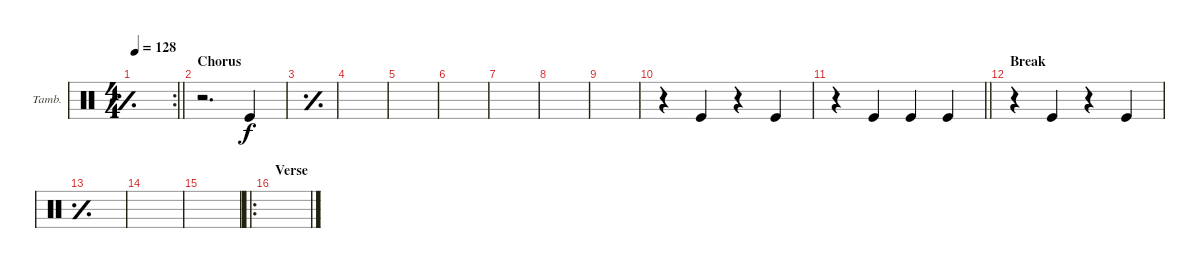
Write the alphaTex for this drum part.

\defaultSystemsLayout 4
\bracketExtendMode groupsimilarinstruments
\firstSystemTrackNameOrientation horizontal
\otherSystemsTrackNameOrientation horizontal
\track ("Tambourine" "Tamb.") {instrument percussion}
\staff {score}
\articulation defaults
\rc 2
\ts (4 4)
\tempo 128
\clef neutral
\simile simple
\scale
0.355932
\barLineRight lightlight
\ks c
|
\section ("" "Chorus")
\simile none
\scale
0.322034 r.2{d} "Kick (hit)".4 |
\simile simple
\scale
0.333333 |
\scale
0.333333 |
\scale
0.333333 |
\scale
0.333333 |
\scale
0.333333 |
\scale
0.333333 |
\scale
0.333333 |
\simile none
\scale
0.333333 r.4 "Kick (hit)".4 r.4 "Kick (hit)".4 |
\scale
0.333333
\barLineRight lightlight
r.4 "Kick (hit)".4 "Kick (hit)".4 "Kick (hit)".4 |
\section ("" "Break")
\scale
0.333333 r.4 "Kick (hit)".4 r.4 "Kick (hit)".4 |
\simile simple
\scale
0.333333 |
\scale
0.333333 |
\scale
0.311475 |
\ro
\section ("" "Verse")
\scale
0.377049
